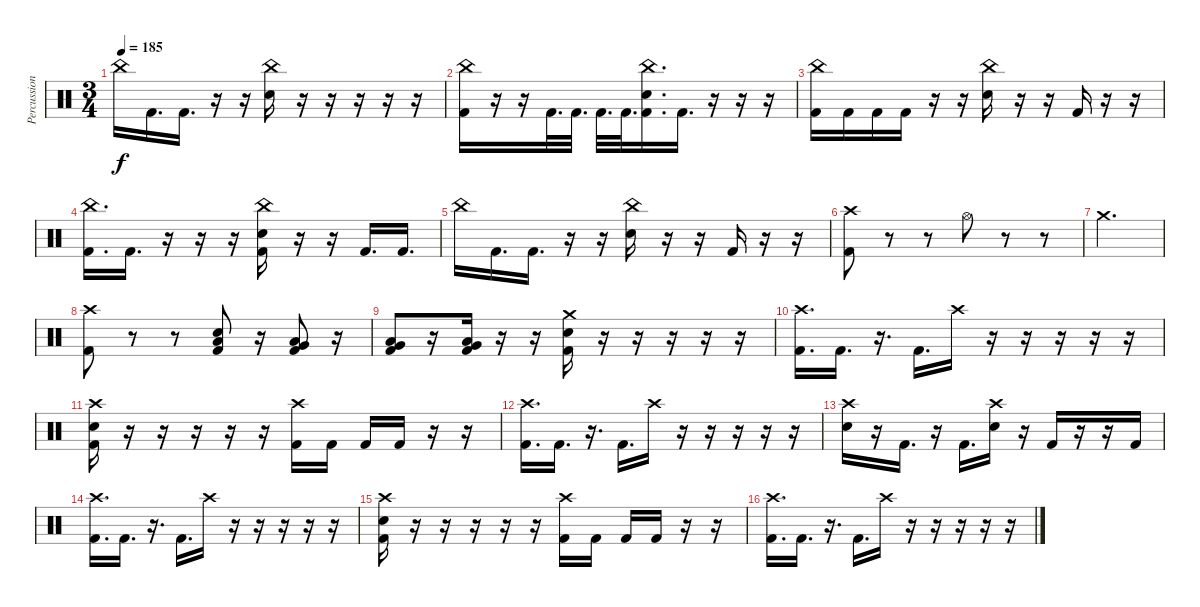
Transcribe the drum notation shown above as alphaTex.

\track ("Percussion" "Percussion") {instrument percussion}
\staff {score}
\articulation defaults
\ts (3 4)
\tempo 185
\clef neutral
\ks c "China (hit)".16{dy f} "Kick (hit) 2".16{d} "Kick (hit) 2".16{d}
r.16 r.16 ("China (hit)" "Electric Snare (hit)").16 r.16 r.16 r.16 r.16 r.16 |
("China (hit)" "Kick (hit) 2").16 r.16 r.16 "Kick (hit) 2".32{d} "Kick (hit) 2".32{d} "Kick (hit) 2".32{d} "Kick (hit) 2".32{d} ("China (hit)" "Electric Snare (hit)" "Kick (hit) 2").16{d} "Kick (hit) 2".16{d} r.16 r.16 r.16 |
("China (hit)" "Kick (hit) 2").16 "Kick (hit) 2".16 "Kick (hit) 2".16 "Kick (hit) 2".16 r.16 r.16 ("China (hit)" "Electric Snare (hit)").16 r.16 r.16 "Kick (hit) 2".16 r.16 r.16 |
("China (hit)" "Kick (hit) 2").16{d} "Kick (hit) 2".16{d} r.16 r.16 r.16 ("China (hit)" "Electric Snare (hit)" "Kick (hit) 2").16 r.16 r.16 "Kick (hit) 2".16{d} "Kick (hit) 2".16{d} |
"China (hit)".16 "Kick (hit) 2".16{d} "Kick (hit) 2".16{d} r.16 r.16 ("China (hit)" "Electric Snare (hit)").16 r.16 r.16 "Kick (hit) 2".16 r.16 r.16 |
("Crash high (hit)" "Kick (hit) 2").8 r.8 r.8 "Hi-Hat (open)".8 r.8 r.8 |
"Crash medium (hit)".2{d} |
("Crash high (hit)" "Kick (hit) 2").8 r.8 r.8 ("Low Floor Tom (hit)" "Electric Snare (hit)" "Kick (hit) 2").8 r.16 ("Very Low Tom (hit)" "Low Floor Tom (hit)" "Kick (hit) 2").8 r.16 |
("Low Tom (hit)" "Very Low Tom (hit)" "Kick (hit) 2").8 r.16 ("Very Low Tom (hit)" "Low Floor Tom (hit)" "Kick (hit) 2").16 r.16 r.16 ("Crash medium (hit)" "Electric Snare (hit)" "Kick (hit) 2").16 r.16 r.16 r.16 r.16 r.16 |
("Crash high (hit)" "Kick (hit) 2").16{d} "Kick (hit) 2".16{d} r.16{d} "Kick (hit) 2".16{d} "Crash high (hit)".16 r.16 r.16 r.16 r.16 r.16 |
("Crash high (hit)" "Electric Snare (hit)" "Kick (hit) 2").16 r.16 r.16 r.16 r.16 r.16 ("Crash high (hit)" "Kick (hit) 2").16 "Kick (hit) 2".16 "Kick (hit) 2".16 "Kick (hit) 2".16 r.16 r.16 |
("Crash high (hit)" "Kick (hit) 2").16{d} "Kick (hit) 2".16{d} r.16{d} "Kick (hit) 2".16{d} "Crash high (hit)".16 r.16 r.16 r.16 r.16 r.16 |
("Crash high (hit)" "Electric Snare (hit)").16 r.16 "Kick (hit) 2".16{d} r.16 "Kick (hit) 2".16{d} ("Crash high (hit)" "Electric Snare (hit)").16 r.16 "Kick (hit) 2".16 r.16 r.16 "Kick (hit) 2".16 |
("Crash high (hit)" "Kick (hit) 2").16{d} "Kick (hit) 2".16{d} r.16{d} "Kick (hit) 2".16{d} "Crash high (hit)".16 r.16 r.16 r.16 r.16 r.16 |
("Crash high (hit)" "Electric Snare (hit)" "Kick (hit) 2").16 r.16 r.16 r.16 r.16 r.16 ("Crash high (hit)" "Kick (hit) 2").16 "Kick (hit) 2".16 "Kick (hit) 2".16 "Kick (hit) 2".16 r.16 r.16 |
("Crash high (hit)" "Kick (hit) 2").16{d} "Kick (hit) 2".16{d} r.16{d} "Kick (hit) 2".16{d} "Crash high (hit)".16 r.16 r.16 r.16 r.16 r.16
